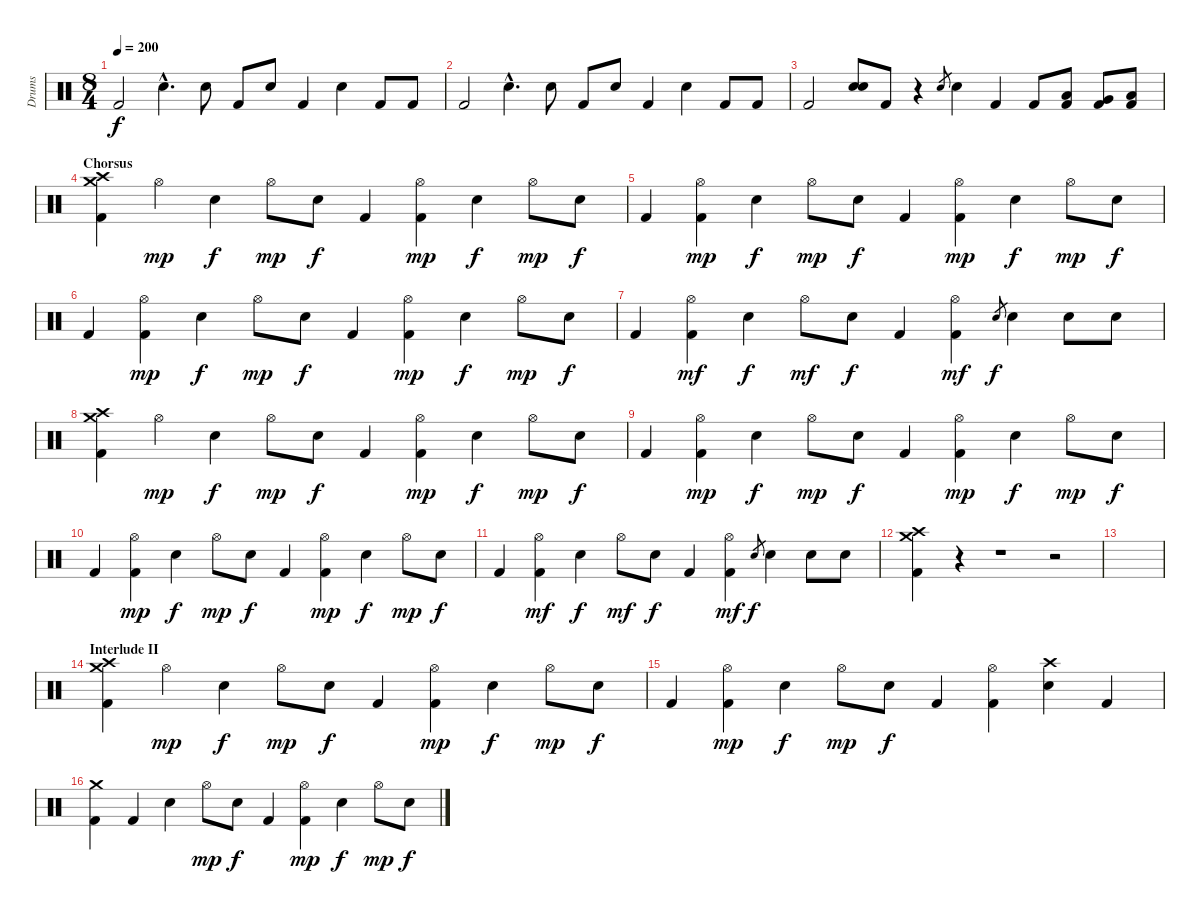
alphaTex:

\track ("Drums" "Drums") {instrument percussion}
\staff {score}
\articulation defaults
\ts (8 4)
\tempo 200
\clef neutral
\ks c "Kick (hit) 2".2{dy f} "Electric Snare (hit)"{hac}.4{d} "Electric Snare (hit)".8 "Kick (hit) 2".8 "Electric Snare (hit)".8 "Kick (hit) 2".4 "Electric Snare (hit)".4 "Kick (hit) 2".8 "Kick (hit) 2".8
|
"Kick (hit) 2".2 "Electric Snare (hit)"{hac}.4{d} "Electric Snare (hit)".8 "Kick (hit) 2".8 "Electric Snare (hit)".8 "Kick (hit) 2".4 "Electric Snare (hit)".4 "Kick (hit) 2".8 "Kick (hit) 2".8 |
"Kick (hit) 2".2 ("Electric Snare (hit)" "Snare (hit) 2").8 "Kick (hit) 2".8 r.4 "Electric Snare (hit)".8{gr} "Electric Snare (hit)".4 "Kick (hit) 2".4 "Kick (hit) 2".8 ("Low Tom (hit)" "Kick (hit) 2").8 ("Very Low Tom (hit)" "Kick (hit) 2").8 ("Low Floor Tom (hit)" "Kick (hit) 2").8 |
\section ("" "Chorsus")
("Crash high (hit)" "Kick (hit) 2" "Crash medium (hit)").4 "Hi-Hat (open)".4{dy mp} "Electric Snare (hit)".4{dy f} "Hi-Hat (open)".8{dy mp} "Electric Snare (hit)".8{dy f} "Kick (hit) 2".4 ("Hi-Hat (open)" "Kick (hit) 2").4{dy mp} "Electric Snare (hit)".4{dy f} "Hi-Hat (open)".8{dy mp} "Electric Snare (hit)".8{dy f} |
"Kick (hit) 2".4 ("Hi-Hat (open)" "Kick (hit) 2").4{dy mp} "Electric Snare (hit)".4{dy f} "Hi-Hat (open)".8{dy mp} "Electric Snare (hit)".8{dy f} "Kick (hit) 2".4 ("Hi-Hat (open)" "Kick (hit) 2").4{dy mp} "Electric Snare (hit)".4{dy f} "Hi-Hat (open)".8{dy mp} "Electric Snare (hit)".8{dy f} |
"Kick (hit) 2".4 ("Hi-Hat (open)" "Kick (hit) 2").4{dy mp} "Electric Snare (hit)".4{dy f} "Hi-Hat (open)".8{dy mp} "Electric Snare (hit)".8{dy f} "Kick (hit) 2".4 ("Hi-Hat (open)" "Kick (hit) 2").4{dy mp} "Electric Snare (hit)".4{dy f} "Hi-Hat (open)".8{dy mp} "Electric Snare (hit)".8{dy f} |
"Kick (hit) 2".4 ("Hi-Hat (open)" "Kick (hit) 2").4{dy mf} "Electric Snare (hit)".4{dy f} "Hi-Hat (open)".8{dy mf} "Electric Snare (hit)".8{dy f} "Kick (hit) 2".4 ("Hi-Hat (open)" "Kick (hit) 2").4{dy mf} "Electric Snare (hit)".8{gr dy f} "Electric Snare (hit)".4 "Electric Snare (hit)".8 "Electric Snare (hit)".8 |
("Crash high (hit)" "Kick (hit) 2" "Crash medium (hit)").4 "Hi-Hat (open)".4{dy mp} "Electric Snare (hit)".4{dy f} "Hi-Hat (open)".8{dy mp} "Electric Snare (hit)".8{dy f} "Kick (hit) 2".4 ("Hi-Hat (open)" "Kick (hit) 2").4{dy mp} "Electric Snare (hit)".4{dy f} "Hi-Hat (open)".8{dy mp} "Electric Snare (hit)".8{dy f} |
"Kick (hit) 2".4 ("Hi-Hat (open)" "Kick (hit) 2").4{dy mp} "Electric Snare (hit)".4{dy f} "Hi-Hat (open)".8{dy mp} "Electric Snare (hit)".8{dy f} "Kick (hit) 2".4 ("Hi-Hat (open)" "Kick (hit) 2").4{dy mp} "Electric Snare (hit)".4{dy f} "Hi-Hat (open)".8{dy mp} "Electric Snare (hit)".8{dy f} |
"Kick (hit) 2".4 ("Hi-Hat (open)" "Kick (hit) 2").4{dy mp} "Electric Snare (hit)".4{dy f} "Hi-Hat (open)".8{dy mp} "Electric Snare (hit)".8{dy f} "Kick (hit) 2".4 ("Hi-Hat (open)" "Kick (hit) 2").4{dy mp} "Electric Snare (hit)".4{dy f} "Hi-Hat (open)".8{dy mp} "Electric Snare (hit)".8{dy f} |
"Kick (hit) 2".4 ("Hi-Hat (open)" "Kick (hit) 2").4{dy mf} "Electric Snare (hit)".4{dy f} "Hi-Hat (open)".8{dy mf} "Electric Snare (hit)".8{dy f} "Kick (hit) 2".4 ("Hi-Hat (open)" "Kick (hit) 2").4{dy mf} "Electric Snare (hit)".8{gr dy f} "Electric Snare (hit)".4 "Electric Snare (hit)".8 "Electric Snare (hit)".8 |
("Crash high (hit)" "Kick (hit) 2" "Crash medium (hit)").4 r.4 r.1 r.2 |
|
\section ("" "Interlude II")
("Crash high (hit)" "Kick (hit) 2" "Crash medium (hit)").4 "Hi-Hat (open)".4{dy mp} "Electric Snare (hit)".4{dy f} "Hi-Hat (open)".8{dy mp} "Electric Snare (hit)".8{dy f} "Kick (hit) 2".4 ("Hi-Hat (open)" "Kick (hit) 2").4{dy mp} "Electric Snare (hit)".4{dy f} "Hi-Hat (open)".8{dy mp} "Electric Snare (hit)".8{dy f} |
"Kick (hit) 2".4 ("Hi-Hat (open)" "Kick (hit) 2").4{dy mp} "Electric Snare (hit)".4{dy f} "Hi-Hat (open)".8{dy mp} "Electric Snare (hit)".8{dy f} "Kick (hit) 2".4 ("Hi-Hat (open)" "Kick (hit) 2").4 ("Electric Snare (hit)" "Crash high (hit)").4 "Kick (hit) 2".4 |
("Kick (hit) 2" "Crash medium (hit)").4 "Kick (hit) 2".4 "Electric Snare (hit)".4 "Hi-Hat (open)".8{dy mp} "Electric Snare (hit)".8{dy f} "Kick (hit) 2".4 ("Hi-Hat (open)" "Kick (hit) 2").4{dy mp} "Electric Snare (hit)".4{dy f} "Hi-Hat (open)".8{dy mp} "Electric Snare (hit)".8{dy f}
